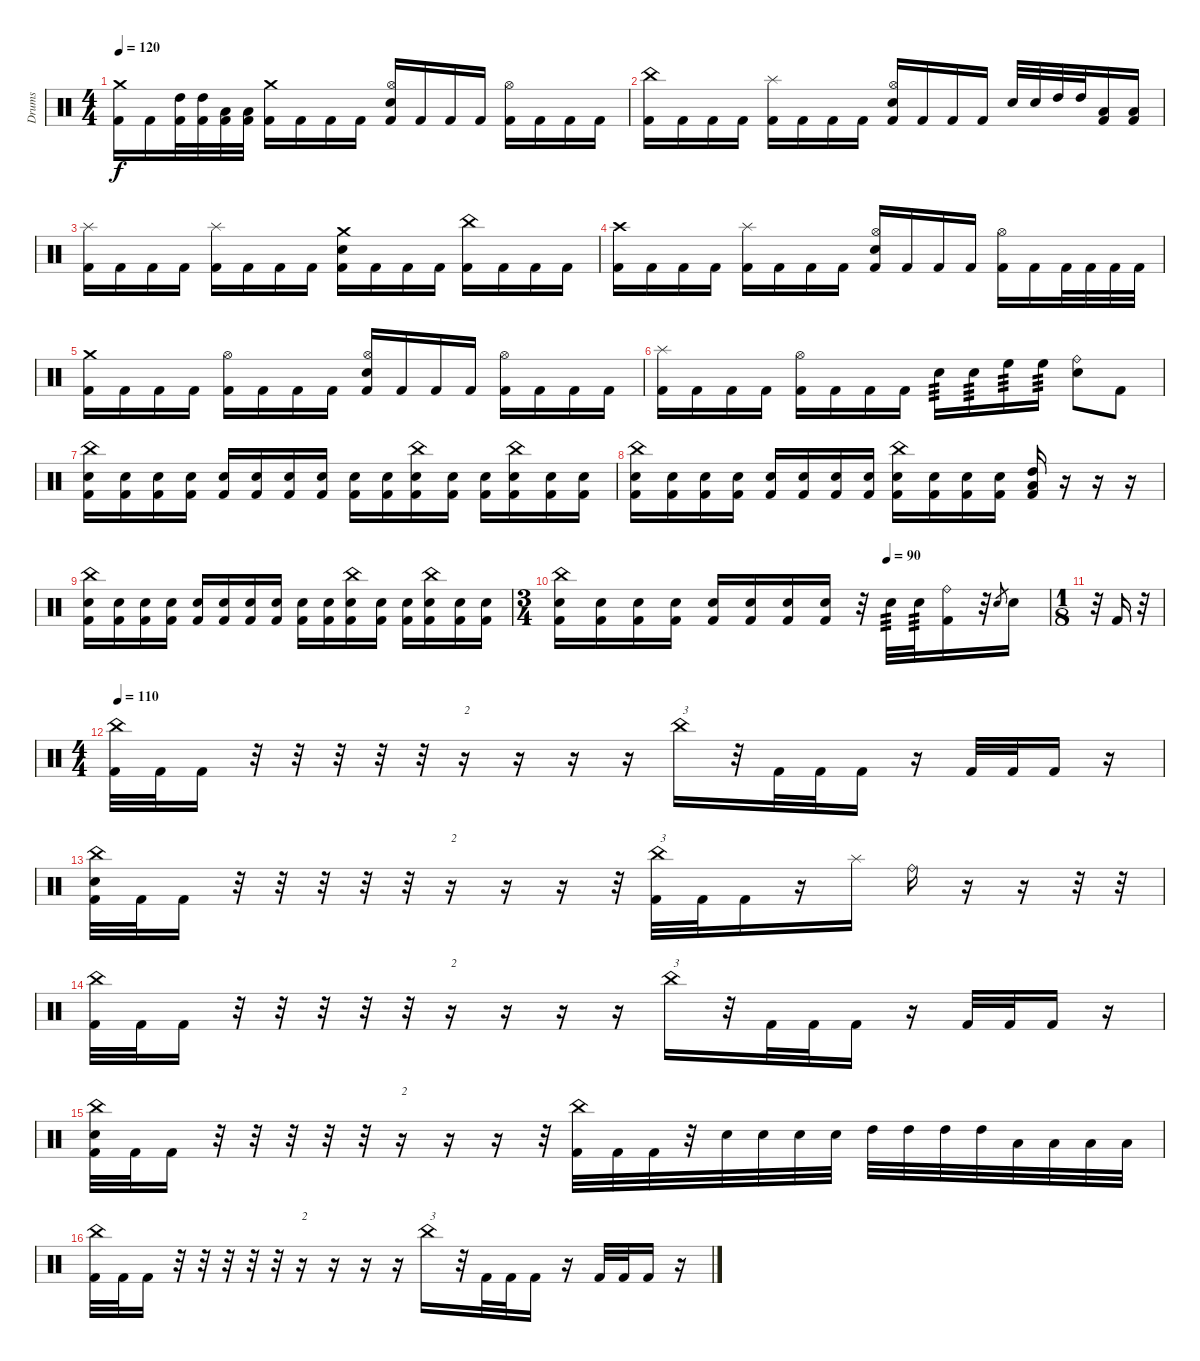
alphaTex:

\track ("Drums" "Drums") {instrument percussion}
\staff {score}
\articulation defaults
\ts (4 4)
\tempo 120
\clef neutral
\ks c
("Crash medium (hit)" "Kick (hit) 2").16{dy f} "Kick (hit) 2".16 ("High Tom (hit)" "Kick (hit) 2").32 ("High Tom (hit)" "Kick (hit) 2").32 ("Low Tom (hit)" "Kick (hit) 2").32 ("Low Tom (hit)" "Kick (hit) 2").32 ("Crash medium (hit)" "Kick (hit) 2").16 "Kick (hit) 2".16 "Kick (hit) 2".16 "Kick (hit) 2".16 ("Hi-Hat (open)" "Electric Snare (hit)" "Kick (hit) 2").16 "Kick (hit) 2".16 "Kick (hit) 2".16 "Kick (hit) 2".16 ("Hi-Hat (open)" "Kick (hit) 2").16 "Kick (hit) 2".16 "Kick (hit) 2".16 "Kick (hit) 2".16 |
("China (hit)" "Kick (hit) 2").16 "Kick (hit) 2".16 "Kick (hit) 2".16 "Kick (hit) 2".16 ("Splash (hit)" "Kick (hit) 2").16 "Kick (hit) 2".16 "Kick (hit) 2".16 "Kick (hit) 2".16 ("Hi-Hat (open)" "Electric Snare (hit)" "Kick (hit) 2").16 "Kick (hit) 2".16 "Kick (hit) 2".16 "Kick (hit) 2".16 "Electric Snare (hit)".32 "Electric Snare (hit)".32 "High Tom (hit)".32 "High Tom (hit)".32 ("Low Tom (hit)" "Kick (hit) 2").16 ("Low Tom (hit)" "Kick (hit) 2").16 |
("Splash (hit)" "Kick (hit) 2").16 "Kick (hit) 2".16 "Kick (hit) 2".16 "Kick (hit) 2".16 ("Splash (hit)" "Kick (hit) 2").16 "Kick (hit) 2".16 "Kick (hit) 2".16 "Kick (hit) 2".16 ("Crash medium (hit)" "Electric Snare (hit)" "Kick (hit) 2").16 "Kick (hit) 2".16 "Kick (hit) 2".16 "Kick (hit) 2".16 ("China (hit)" "Kick (hit) 2").16 "Kick (hit) 2".16 "Kick (hit) 2".16 "Kick (hit) 2".16 |
("Crash high (hit)" "Kick (hit) 2").16 "Kick (hit) 2".16 "Kick (hit) 2".16 "Kick (hit) 2".16 ("Splash (hit)" "Kick (hit) 2").16 "Kick (hit) 2".16 "Kick (hit) 2".16 "Kick (hit) 2".16 ("Hi-Hat (open)" "Electric Snare (hit)" "Kick (hit) 2").16 "Kick (hit) 2".16 "Kick (hit) 2".16 "Kick (hit) 2".16 ("Hi-Hat (open)" "Kick (hit) 2").16 "Kick (hit) 2".16 "Kick (hit) 2".32 "Kick (hit) 2".32 "Kick (hit) 2".32 "Kick (hit) 2".32 |
("Crash medium (hit)" "Kick (hit) 2").16 "Kick (hit) 2".16 "Kick (hit) 2".16 "Kick (hit) 2".16 ("Hi-Hat (open)" "Kick (hit) 2").16 "Kick (hit) 2".16 "Kick (hit) 2".16 "Kick (hit) 2".16 ("Hi-Hat (open)" "Electric Snare (hit)" "Kick (hit) 2").16 "Kick (hit) 2".16 "Kick (hit) 2".16 "Kick (hit) 2".16 ("Hi-Hat (open)" "Kick (hit) 2").16 "Kick (hit) 2".16 "Kick (hit) 2".16 "Kick (hit) 2".16 |
("Splash (hit)" "Kick (hit) 2").16 "Kick (hit) 2".16 "Kick (hit) 2".16 "Kick (hit) 2".16 ("Hi-Hat (open)" "Kick (hit) 2").16 "Kick (hit) 2".16 "Kick (hit) 2".16 "Kick (hit) 2".16 "Electric Snare (hit)".16{tp 3} "Electric Snare (hit)".16{tp 3} "High Floor Tom (hit)".16{tp 3} "High Floor Tom (hit)".16{tp 3} ("Ride (bell)" "Electric Snare (hit)").8 "Kick (hit) 2".8 |
("China (hit)" "Electric Snare (hit)" "Kick (hit) 2").16 ("Electric Snare (hit)" "Kick (hit) 2").16 ("Electric Snare (hit)" "Kick (hit) 2").16 ("Electric Snare (hit)" "Kick (hit) 2").16 ("Electric Snare (hit)" "Kick (hit) 2").16 ("Electric Snare (hit)" "Kick (hit) 2").16 ("Electric Snare (hit)" "Kick (hit) 2").16 ("Electric Snare (hit)" "Kick (hit) 2").16 ("Electric Snare (hit)" "Kick (hit) 2").16 ("Electric Snare (hit)" "Kick (hit) 2").16 ("China (hit)" "Electric Snare (hit)" "Kick (hit) 2").16 ("Electric Snare (hit)" "Kick (hit) 2").16 ("Electric Snare (hit)" "Kick (hit) 2").16 ("China (hit)" "Electric Snare (hit)" "Kick (hit) 2").16 ("Electric Snare (hit)" "Kick (hit) 2").16 ("Electric Snare (hit)" "Kick (hit) 2").16 |
("China (hit)" "Electric Snare (hit)" "Kick (hit) 2").16 ("Electric Snare (hit)" "Kick (hit) 2").16 ("Electric Snare (hit)" "Kick (hit) 2").16 ("Electric Snare (hit)" "Kick (hit) 2").16 ("Electric Snare (hit)" "Kick (hit) 2").16 ("Electric Snare (hit)" "Kick (hit) 2").16 ("Electric Snare (hit)" "Kick (hit) 2").16 ("Electric Snare (hit)" "Kick (hit) 2").16 ("China (hit)" "Electric Snare (hit)" "Kick (hit) 2").16 ("Electric Snare (hit)" "Kick (hit) 2").16 ("Electric Snare (hit)" "Kick (hit) 2").16 ("Electric Snare (hit)" "Kick (hit) 2").16 ("High Tom (hit)" "Low Tom (hit)" "Kick (hit) 2").16 r.16 r.16 r.16 |
("China (hit)" "Electric Snare (hit)" "Kick (hit) 2").16 ("Electric Snare (hit)" "Kick (hit) 2").16 ("Electric Snare (hit)" "Kick (hit) 2").16 ("Electric Snare (hit)" "Kick (hit) 2").16 ("Electric Snare (hit)" "Kick (hit) 2").16 ("Electric Snare (hit)" "Kick (hit) 2").16 ("Electric Snare (hit)" "Kick (hit) 2").16 ("Electric Snare (hit)" "Kick (hit) 2").16 ("Electric Snare (hit)" "Kick (hit) 2").16 ("Electric Snare (hit)" "Kick (hit) 2").16 ("China (hit)" "Electric Snare (hit)" "Kick (hit) 2").16 ("Electric Snare (hit)" "Kick (hit) 2").16 ("Electric Snare (hit)" "Kick (hit) 2").16 ("China (hit)" "Electric Snare (hit)" "Kick (hit) 2").16 ("Electric Snare (hit)" "Kick (hit) 2").16 ("Electric Snare (hit)" "Kick (hit) 2").16 |
\ts (3 4)
\tempo (90 0.6666666666666666)
("China (hit)" "Electric Snare (hit)" "Kick (hit) 2").16 ("Electric Snare (hit)" "Kick (hit) 2").16 ("Electric Snare (hit)" "Kick (hit) 2").16 ("Electric Snare (hit)" "Kick (hit) 2").16 ("Electric Snare (hit)" "Kick (hit) 2").16 ("Electric Snare (hit)" "Kick (hit) 2").16 ("Electric Snare (hit)" "Kick (hit) 2").16 ("Electric Snare (hit)" "Kick (hit) 2").16 r.32 "Electric Snare (hit)".32{tp 3} "Electric Snare (hit)".32{tp 3} ("Ride (bell)" "Kick (hit) 2").16 r.32 "Electric Snare (hit)".8{gr} "Electric Snare (hit)".16 |
\ts (1 8)
r.32 "Kick (hit) 2".16 r.32 |
\ts (4 4)
\tempo 110
("China (hit)" "Kick (hit) 2").32 "Kick (hit) 2".32 "Kick (hit) 2".16 r.32{volume 0} r.32 r.32 r.32 r.32 r.16{txt "2"} r.16 r.16 r.16 "China (hit)".16{txt "3" volume 13} r.32 "Kick (hit) 2".32 "Kick (hit) 2".32 "Kick (hit) 2".16 r.16 "Kick (hit) 2".32 "Kick (hit) 2".32 "Kick (hit) 2".16 r.16 |
("China (hit)" "Electric Snare (hit)" "Kick (hit) 2").32 "Kick (hit) 2".32 "Kick (hit) 2".16 r.32 r.32 r.32 r.32 r.32 r.16{txt "2"} r.16 r.16 r.32 ("China (hit)" "Kick (hit) 2").32{txt "3"} "Kick (hit) 2".32 "Kick (hit) 2".16 r.16 "Splash (hit)".16 "Ride (bell)".16 r.16 r.16 r.32 r.32 |
("China (hit)" "Kick (hit) 2").32 "Kick (hit) 2".32 "Kick (hit) 2".16 r.32{volume 0} r.32 r.32 r.32 r.32 r.16{txt "2"} r.16 r.16 r.16 "China (hit)".16{txt "3" volume 13} r.32 "Kick (hit) 2".32 "Kick (hit) 2".32 "Kick (hit) 2".16 r.16 "Kick (hit) 2".32 "Kick (hit) 2".32 "Kick (hit) 2".16 r.16 |
("China (hit)" "Electric Snare (hit)" "Kick (hit) 2").32 "Kick (hit) 2".32 "Kick (hit) 2".16 r.32 r.32 r.32 r.32 r.32 r.16{txt "2"} r.16 r.16 r.32 ("China (hit)" "Kick (hit) 2").32 "Kick (hit) 2".32 "Kick (hit) 2".32 r.32 "Electric Snare (hit)".32 "Electric Snare (hit)".32 "Electric Snare (hit)".32 "Electric Snare (hit)".32 "High Tom (hit)".32 "High Tom (hit)".32 "High Tom (hit)".32 "High Tom (hit)".32 "Low Tom (hit)".32 "Low Tom (hit)".32 "Low Tom (hit)".32 "Low Tom (hit)".32 |
("China (hit)" "Kick (hit) 2").32 "Kick (hit) 2".32 "Kick (hit) 2".16 r.32{volume 0} r.32 r.32 r.32 r.32 r.16{txt "2"} r.16 r.16 r.16 "China (hit)".16{txt "3" volume 13} r.32 "Kick (hit) 2".32 "Kick (hit) 2".32 "Kick (hit) 2".16 r.16 "Kick (hit) 2".32 "Kick (hit) 2".32 "Kick (hit) 2".16 r.16
